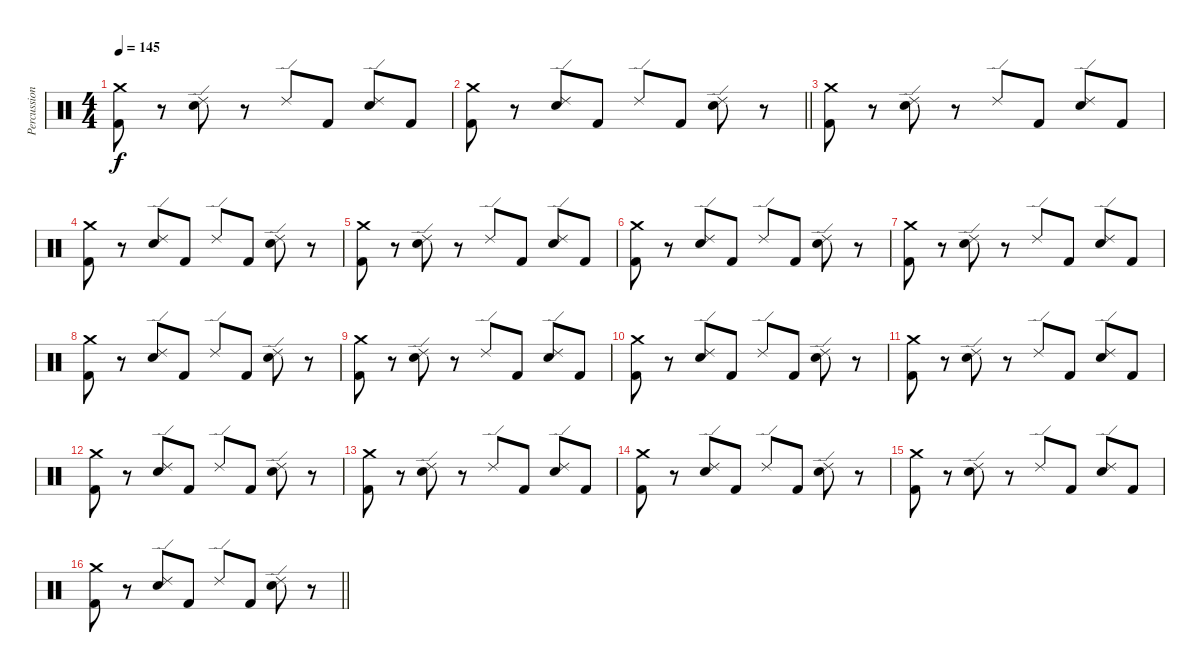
\track ("Percussion" "Percussion") {instrument percussion}
\staff {score}
\articulation defaults
\ts (4 4)
\tempo 145
\clef neutral
\ks c
("Crash medium (hit)" "Kick (hit) 2").8{dy f} r.8 ("Ride (edge) 2" "Electric Snare (hit)").8 r.8 "Ride (edge) 2".8 "Kick (hit) 2".8 ("Ride (edge) 2" "Electric Snare (hit)").8 "Kick (hit) 2".8 |
\barLineRight lightlight
("Crash medium (hit)" "Kick (hit) 2").8 r.8 ("Ride (edge) 2" "Electric Snare (hit)").8 "Kick (hit) 2".8 "Ride (edge) 2".8 "Kick (hit) 2".8 ("Ride (edge) 2" "Electric Snare (hit)").8 r.8 |
("Crash medium (hit)" "Kick (hit) 2").8 r.8 ("Ride (edge) 2" "Electric Snare (hit)").8 r.8 "Ride (edge) 2".8 "Kick (hit) 2".8 ("Ride (edge) 2" "Electric Snare (hit)").8 "Kick (hit) 2".8 |
("Crash medium (hit)" "Kick (hit) 2").8 r.8 ("Ride (edge) 2" "Electric Snare (hit)").8 "Kick (hit) 2".8 "Ride (edge) 2".8 "Kick (hit) 2".8 ("Ride (edge) 2" "Electric Snare (hit)").8 r.8 |
("Crash medium (hit)" "Kick (hit) 2").8 r.8 ("Ride (edge) 2" "Electric Snare (hit)").8 r.8 "Ride (edge) 2".8 "Kick (hit) 2".8 ("Ride (edge) 2" "Electric Snare (hit)").8 "Kick (hit) 2".8 |
("Crash medium (hit)" "Kick (hit) 2").8 r.8 ("Ride (edge) 2" "Electric Snare (hit)").8 "Kick (hit) 2".8 "Ride (edge) 2".8 "Kick (hit) 2".8 ("Ride (edge) 2" "Electric Snare (hit)").8 r.8 |
("Crash medium (hit)" "Kick (hit) 2").8 r.8 ("Ride (edge) 2" "Electric Snare (hit)").8 r.8 "Ride (edge) 2".8 "Kick (hit) 2".8 ("Ride (edge) 2" "Electric Snare (hit)").8 "Kick (hit) 2".8 |
("Crash medium (hit)" "Kick (hit) 2").8 r.8 ("Ride (edge) 2" "Electric Snare (hit)").8 "Kick (hit) 2".8 "Ride (edge) 2".8 "Kick (hit) 2".8 ("Ride (edge) 2" "Electric Snare (hit)").8 r.8 |
("Crash medium (hit)" "Kick (hit) 2").8 r.8 ("Ride (edge) 2" "Electric Snare (hit)").8 r.8 "Ride (edge) 2".8 "Kick (hit) 2".8 ("Ride (edge) 2" "Electric Snare (hit)").8 "Kick (hit) 2".8 |
("Crash medium (hit)" "Kick (hit) 2").8 r.8 ("Ride (edge) 2" "Electric Snare (hit)").8 "Kick (hit) 2".8 "Ride (edge) 2".8 "Kick (hit) 2".8 ("Ride (edge) 2" "Electric Snare (hit)").8 r.8 |
("Crash medium (hit)" "Kick (hit) 2").8 r.8 ("Ride (edge) 2" "Electric Snare (hit)").8 r.8 "Ride (edge) 2".8 "Kick (hit) 2".8 ("Ride (edge) 2" "Electric Snare (hit)").8 "Kick (hit) 2".8 |
("Crash medium (hit)" "Kick (hit) 2").8 r.8 ("Ride (edge) 2" "Electric Snare (hit)").8 "Kick (hit) 2".8 "Ride (edge) 2".8 "Kick (hit) 2".8 ("Ride (edge) 2" "Electric Snare (hit)").8 r.8 |
("Crash medium (hit)" "Kick (hit) 2").8 r.8 ("Ride (edge) 2" "Electric Snare (hit)").8 r.8 "Ride (edge) 2".8 "Kick (hit) 2".8 ("Ride (edge) 2" "Electric Snare (hit)").8 "Kick (hit) 2".8 |
("Crash medium (hit)" "Kick (hit) 2").8 r.8 ("Ride (edge) 2" "Electric Snare (hit)").8 "Kick (hit) 2".8 "Ride (edge) 2".8 "Kick (hit) 2".8 ("Ride (edge) 2" "Electric Snare (hit)").8 r.8 |
("Crash medium (hit)" "Kick (hit) 2").8 r.8 ("Ride (edge) 2" "Electric Snare (hit)").8 r.8 "Ride (edge) 2".8 "Kick (hit) 2".8 ("Ride (edge) 2" "Electric Snare (hit)").8 "Kick (hit) 2".8 |
\barLineRight lightlight
("Crash medium (hit)" "Kick (hit) 2").8 r.8 ("Ride (edge) 2" "Electric Snare (hit)").8 "Kick (hit) 2".8 "Ride (edge) 2".8 "Kick (hit) 2".8 ("Ride (edge) 2" "Electric Snare (hit)").8 r.8
